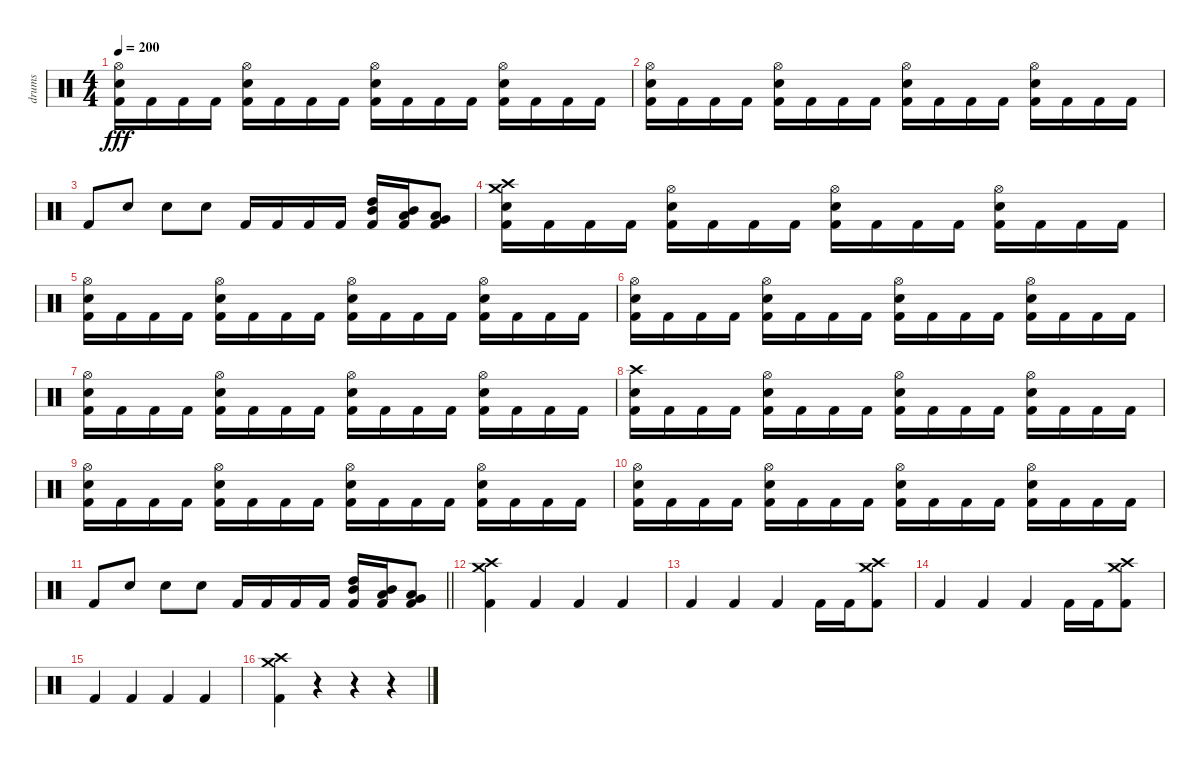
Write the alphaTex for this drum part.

\track ("drums" "drums") {instrument percussion}
\staff {score}
\articulation defaults
\ts (4 4)
\tempo 200
\clef neutral
\ks c
("Hi-Hat (open)" "Electric Snare (hit)" "Kick (hit) 2").16{dy fff} "Kick (hit) 2".16 "Kick (hit) 2".16 "Kick (hit) 2".16 ("Hi-Hat (open)" "Electric Snare (hit)" "Kick (hit) 2").16 "Kick (hit) 2".16 "Kick (hit) 2".16 "Kick (hit) 2".16 ("Hi-Hat (open)" "Electric Snare (hit)" "Kick (hit) 2").16 "Kick (hit) 2".16 "Kick (hit) 2".16 "Kick (hit) 2".16 ("Hi-Hat (open)" "Electric Snare (hit)" "Kick (hit) 2").16 "Kick (hit) 2".16 "Kick (hit) 2".16 "Kick (hit) 2".16 |
("Hi-Hat (open)" "Electric Snare (hit)" "Kick (hit) 2").16 "Kick (hit) 2".16 "Kick (hit) 2".16 "Kick (hit) 2".16 ("Hi-Hat (open)" "Electric Snare (hit)" "Kick (hit) 2").16 "Kick (hit) 2".16 "Kick (hit) 2".16 "Kick (hit) 2".16 ("Hi-Hat (open)" "Electric Snare (hit)" "Kick (hit) 2").16 "Kick (hit) 2".16 "Kick (hit) 2".16 "Kick (hit) 2".16 ("Hi-Hat (open)" "Electric Snare (hit)" "Kick (hit) 2").16 "Kick (hit) 2".16 "Kick (hit) 2".16 "Kick (hit) 2".16 |
"Kick (hit) 2".8 "Electric Snare (hit)".8 "Electric Snare (hit)".8 "Electric Snare (hit)".8 "Kick (hit) 2".16 "Kick (hit) 2".16 "Kick (hit) 2".16 "Kick (hit) 2".16 ("High Tom (hit)" "Mid Tom (hit)" "Kick (hit) 2").16 ("Mid Tom (hit)" "Low Tom (hit)" "Kick (hit) 2").16 ("Low Tom (hit)" "Very Low Tom (hit)" "Kick (hit) 2").8 |
("Crash high (hit)" "Crash medium (hit)" "Electric Snare (hit)" "Kick (hit) 2").16 "Kick (hit) 2".16 "Kick (hit) 2".16 "Kick (hit) 2".16 ("Hi-Hat (open)" "Electric Snare (hit)" "Kick (hit) 2").16 "Kick (hit) 2".16 "Kick (hit) 2".16 "Kick (hit) 2".16 ("Hi-Hat (open)" "Electric Snare (hit)" "Kick (hit) 2").16 "Kick (hit) 2".16 "Kick (hit) 2".16 "Kick (hit) 2".16 ("Hi-Hat (open)" "Electric Snare (hit)" "Kick (hit) 2").16 "Kick (hit) 2".16 "Kick (hit) 2".16 "Kick (hit) 2".16 |
("Hi-Hat (open)" "Electric Snare (hit)" "Kick (hit) 2").16 "Kick (hit) 2".16 "Kick (hit) 2".16 "Kick (hit) 2".16 ("Hi-Hat (open)" "Electric Snare (hit)" "Kick (hit) 2").16 "Kick (hit) 2".16 "Kick (hit) 2".16 "Kick (hit) 2".16 ("Hi-Hat (open)" "Electric Snare (hit)" "Kick (hit) 2").16 "Kick (hit) 2".16 "Kick (hit) 2".16 "Kick (hit) 2".16 ("Hi-Hat (open)" "Electric Snare (hit)" "Kick (hit) 2").16 "Kick (hit) 2".16 "Kick (hit) 2".16 "Kick (hit) 2".16 |
("Hi-Hat (open)" "Electric Snare (hit)" "Kick (hit) 2").16 "Kick (hit) 2".16 "Kick (hit) 2".16 "Kick (hit) 2".16 ("Hi-Hat (open)" "Electric Snare (hit)" "Kick (hit) 2").16 "Kick (hit) 2".16 "Kick (hit) 2".16 "Kick (hit) 2".16 ("Hi-Hat (open)" "Electric Snare (hit)" "Kick (hit) 2").16 "Kick (hit) 2".16 "Kick (hit) 2".16 "Kick (hit) 2".16 ("Hi-Hat (open)" "Electric Snare (hit)" "Kick (hit) 2").16 "Kick (hit) 2".16 "Kick (hit) 2".16 "Kick (hit) 2".16 |
("Hi-Hat (open)" "Electric Snare (hit)" "Kick (hit) 2").16 "Kick (hit) 2".16 "Kick (hit) 2".16 "Kick (hit) 2".16 ("Hi-Hat (open)" "Electric Snare (hit)" "Kick (hit) 2").16 "Kick (hit) 2".16 "Kick (hit) 2".16 "Kick (hit) 2".16 ("Hi-Hat (open)" "Electric Snare (hit)" "Kick (hit) 2").16 "Kick (hit) 2".16 "Kick (hit) 2".16 "Kick (hit) 2".16 ("Hi-Hat (open)" "Electric Snare (hit)" "Kick (hit) 2").16 "Kick (hit) 2".16 "Kick (hit) 2".16 "Kick (hit) 2".16 |
("Crash high (hit)" "Electric Snare (hit)" "Kick (hit) 2").16 "Kick (hit) 2".16 "Kick (hit) 2".16 "Kick (hit) 2".16 ("Hi-Hat (open)" "Electric Snare (hit)" "Kick (hit) 2").16 "Kick (hit) 2".16 "Kick (hit) 2".16 "Kick (hit) 2".16 ("Hi-Hat (open)" "Electric Snare (hit)" "Kick (hit) 2").16 "Kick (hit) 2".16 "Kick (hit) 2".16 "Kick (hit) 2".16 ("Hi-Hat (open)" "Electric Snare (hit)" "Kick (hit) 2").16 "Kick (hit) 2".16 "Kick (hit) 2".16 "Kick (hit) 2".16 |
("Hi-Hat (open)" "Electric Snare (hit)" "Kick (hit) 2").16 "Kick (hit) 2".16 "Kick (hit) 2".16 "Kick (hit) 2".16 ("Hi-Hat (open)" "Electric Snare (hit)" "Kick (hit) 2").16 "Kick (hit) 2".16 "Kick (hit) 2".16 "Kick (hit) 2".16 ("Hi-Hat (open)" "Electric Snare (hit)" "Kick (hit) 2").16 "Kick (hit) 2".16 "Kick (hit) 2".16 "Kick (hit) 2".16 ("Hi-Hat (open)" "Electric Snare (hit)" "Kick (hit) 2").16 "Kick (hit) 2".16 "Kick (hit) 2".16 "Kick (hit) 2".16 |
("Hi-Hat (open)" "Electric Snare (hit)" "Kick (hit) 2").16 "Kick (hit) 2".16 "Kick (hit) 2".16 "Kick (hit) 2".16 ("Hi-Hat (open)" "Electric Snare (hit)" "Kick (hit) 2").16 "Kick (hit) 2".16 "Kick (hit) 2".16 "Kick (hit) 2".16 ("Hi-Hat (open)" "Electric Snare (hit)" "Kick (hit) 2").16 "Kick (hit) 2".16 "Kick (hit) 2".16 "Kick (hit) 2".16 ("Hi-Hat (open)" "Electric Snare (hit)" "Kick (hit) 2").16 "Kick (hit) 2".16 "Kick (hit) 2".16 "Kick (hit) 2".16 |
\barLineRight lightlight "Kick (hit) 2".8 "Electric Snare (hit)".8 "Electric Snare (hit)".8 "Electric Snare (hit)".8 "Kick (hit) 2".16 "Kick (hit) 2".16 "Kick (hit) 2".16 "Kick (hit) 2".16
("High Tom (hit)" "Mid Tom (hit)" "Kick (hit) 2").16 ("Mid Tom (hit)" "Low Tom (hit)" "Kick (hit) 2").16 ("Low Tom (hit)" "Very Low Tom (hit)" "Kick (hit) 2").8 |
\section ("" "")
("Crash high (hit)" "Crash medium (hit)" "Kick (hit) 2").4 "Kick (hit) 2".4 "Kick (hit) 2".4 "Kick (hit) 2".4 |
"Kick (hit) 2".4 "Kick (hit) 2".4 "Kick (hit) 2".4 "Kick (hit) 2".16 "Kick (hit) 2".16 ("Crash high (hit)" "Crash medium (hit)" "Kick (hit) 2").8 |
"Kick (hit) 2".4 "Kick (hit) 2".4 "Kick (hit) 2".4 "Kick (hit) 2".16 "Kick (hit) 2".16 ("Crash high (hit)" "Crash medium (hit)" "Kick (hit) 2").8 |
"Kick (hit) 2".4 "Kick (hit) 2".4 "Kick (hit) 2".4 "Kick (hit) 2".4 |
("Crash high (hit)" "Crash medium (hit)" "Kick (hit) 2").4 r.4 r.4 r.4
